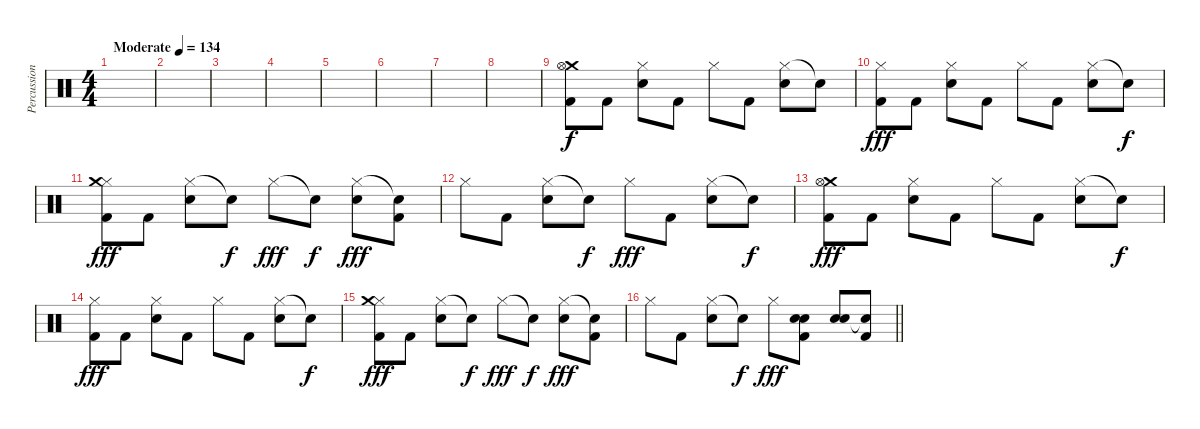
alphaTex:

\track ("Percussion" "Percussion") {instrument percussion}
\staff {score}
\articulation defaults
\ts (4 4)
\tempo (134 "Moderate")
\clef neutral
\ks c
|
|
|
|
|
|
|
|
("Crash medium (hit)" "Hi-Hat (open)" "Kick (hit) 2").8 "Kick (hit) 2".8 ("Hi-Hat (closed)" "Snare (hit) 2").8 "Kick (hit) 2".8 "Hi-Hat (closed)".8 "Kick (hit) 2".8 ("Hi-Hat (closed)" "Snare (hit) 2").8 "Snare (hit)"{t}.8{dy f} |
("Hi-Hat (closed)" "Kick (hit) 2").8{dy fff} "Kick (hit) 2".8 ("Hi-Hat (closed)" "Snare (hit) 2").8 "Kick (hit) 2".8 "Hi-Hat (closed)".8 "Kick (hit) 2".8 ("Hi-Hat (closed)" "Snare (hit) 2").8 "Snare (hit)"{t}.8{dy f} |
("Hi-Hat (closed)" "Crash medium (hit)" "Kick (hit) 2").8{dy fff} "Kick (hit) 2".8 ("Hi-Hat (closed)" "Snare (hit) 2").8 "Snare (hit)"{t}.8{dy f} "Hi-Hat (closed)".8{dy fff} "Snare (hit)"{t}.8{dy f} ("Hi-Hat (closed)" "Snare (hit) 2").8{dy fff} ("Snare (hit)"{t} "Kick (hit) 2").8 |
"Hi-Hat (closed)".8 "Kick (hit) 2".8 ("Hi-Hat (closed)" "Snare (hit) 2").8 "Snare (hit)"{t}.8{dy f} "Hi-Hat (closed)".8{dy fff} "Kick (hit) 2".8 ("Hi-Hat (closed)" "Snare (hit) 2").8 "Snare (hit)"{t}.8{dy f} |
("Crash medium (hit)" "Hi-Hat (open)" "Kick (hit) 2").8{dy fff} "Kick (hit) 2".8 ("Hi-Hat (closed)" "Snare (hit) 2").8 "Kick (hit) 2".8 "Hi-Hat (closed)".8 "Kick (hit) 2".8 ("Hi-Hat (closed)" "Snare (hit) 2").8 "Snare (hit)"{t}.8{dy f} |
("Hi-Hat (closed)" "Kick (hit) 2").8{dy fff} "Kick (hit) 2".8 ("Hi-Hat (closed)" "Snare (hit) 2").8 "Kick (hit) 2".8 "Hi-Hat (closed)".8 "Kick (hit) 2".8 ("Hi-Hat (closed)" "Snare (hit) 2").8 "Snare (hit)"{t}.8{dy f} |
("Hi-Hat (closed)" "Crash medium (hit)" "Kick (hit) 2").8{dy fff} "Kick (hit) 2".8 ("Hi-Hat (closed)" "Snare (hit) 2").8 "Snare (hit)"{t}.8{dy f} "Hi-Hat (closed)".8{dy fff} "Snare (hit)"{t}.8{dy f} ("Hi-Hat (closed)" "Snare (hit) 2").8{dy fff} ("Snare (hit)"{t} "Kick (hit) 2").8 |
\barLineRight lightlight "Hi-Hat (closed)".8 "Kick (hit) 2".8
("Hi-Hat (closed)" "Snare (hit) 2").8 "Snare (hit)"{t}.8{dy f} "Hi-Hat (closed)".8{dy fff} ("Snare (hit) 2" "Snare (hit) 2" "Kick (hit) 2").8 ("Snare (hit) 2" "Snare (hit) 2").8 ("Snare (hit)"{t} "Kick (hit) 2").8
